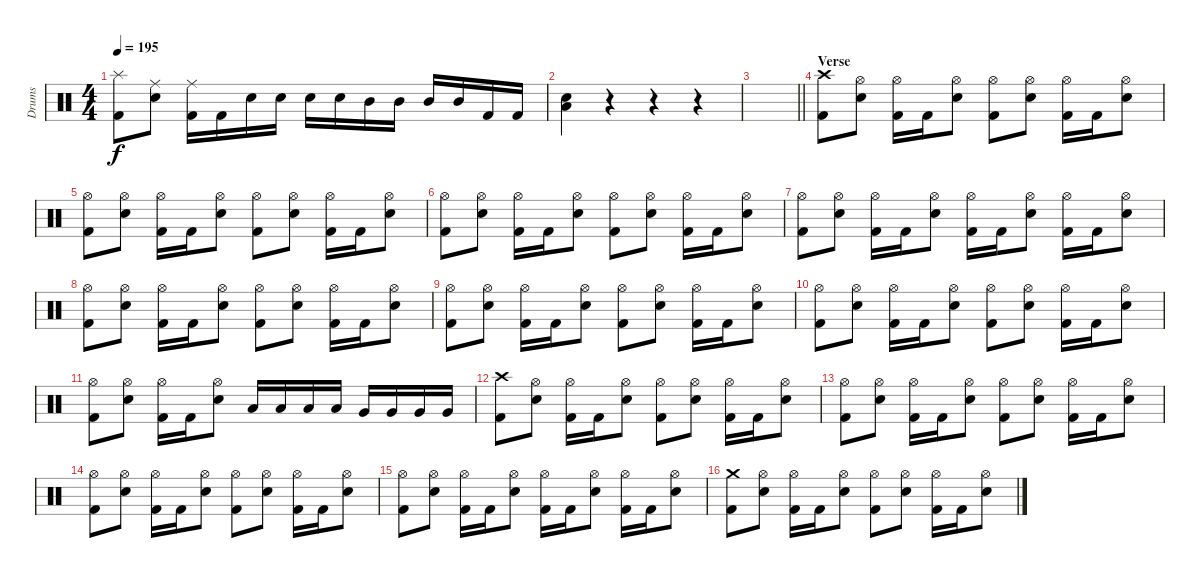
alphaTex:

\track ("Drums" "Drums") {instrument percussion}
\staff {score}
\articulation defaults
\ts (4 4)
\tempo 195
\clef neutral
\ks c
("Splash (hit)" "Kick (hit) 2").8{dy f} ("Ride (middle)" "Electric Snare (hit)").8 ("Ride (middle)" "Kick (hit) 2").16 "Kick (hit) 2".16 "Electric Snare (hit)".16 "Electric Snare (hit)".16 "Electric Snare (hit)".16 "Electric Snare (hit)".16 "Mid Tom (hit)".16 "Mid Tom (hit)".16 "Mid Tom (hit)".16 "Mid Tom (hit)".16 "Kick (hit) 2".16 "Kick (hit) 2".16 |
("Low Floor Tom (hit)" "Electric Snare (hit)").4 r.4 r.4 r.4 |
\barLineRight lightlight
|
\section ("" "Verse")
("Crash high (hit)" "Kick (hit) 2").8 ("Hi-Hat (open)" "Electric Snare (hit)").8 ("Hi-Hat (open)" "Kick (hit) 2").16 "Kick (hit) 2".16 ("Hi-Hat (open)" "Electric Snare (hit)").8 ("Hi-Hat (open)" "Kick (hit) 2").8 ("Hi-Hat (open)" "Electric Snare (hit)").8 ("Hi-Hat (open)" "Kick (hit) 2").16 "Kick (hit) 2".16 ("Hi-Hat (open)" "Electric Snare (hit)").8 |
("Hi-Hat (open)" "Kick (hit) 2").8 ("Hi-Hat (open)" "Electric Snare (hit)").8 ("Hi-Hat (open)" "Kick (hit) 2").16 "Kick (hit) 2".16 ("Hi-Hat (open)" "Electric Snare (hit)").8 ("Hi-Hat (open)" "Kick (hit) 2").8 ("Hi-Hat (open)" "Electric Snare (hit)").8 ("Hi-Hat (open)" "Kick (hit) 2").16 "Kick (hit) 2".16 ("Hi-Hat (open)" "Electric Snare (hit)").8 |
("Hi-Hat (open)" "Kick (hit) 2").8 ("Hi-Hat (open)" "Electric Snare (hit)").8 ("Hi-Hat (open)" "Kick (hit) 2").16 "Kick (hit) 2".16 ("Hi-Hat (open)" "Electric Snare (hit)").8 ("Hi-Hat (open)" "Kick (hit) 2").8 ("Hi-Hat (open)" "Electric Snare (hit)").8 ("Hi-Hat (open)" "Kick (hit) 2").16 "Kick (hit) 2".16 ("Hi-Hat (open)" "Electric Snare (hit)").8 |
("Hi-Hat (open)" "Kick (hit) 2").8 ("Hi-Hat (open)" "Electric Snare (hit)").8 ("Hi-Hat (open)" "Kick (hit) 2").16 "Kick (hit) 2".16 ("Hi-Hat (open)" "Electric Snare (hit)").8 ("Hi-Hat (open)" "Kick (hit) 2").16 "Kick (hit) 2".16 ("Hi-Hat (open)" "Electric Snare (hit)").8 ("Hi-Hat (open)" "Kick (hit) 2").16 "Kick (hit) 2".16 ("Hi-Hat (open)" "Electric Snare (hit)").8 |
("Hi-Hat (open)" "Kick (hit) 2").8 ("Hi-Hat (open)" "Electric Snare (hit)").8 ("Hi-Hat (open)" "Kick (hit) 2").16 "Kick (hit) 2".16 ("Hi-Hat (open)" "Electric Snare (hit)").8 ("Hi-Hat (open)" "Kick (hit) 2").8 ("Hi-Hat (open)" "Electric Snare (hit)").8 ("Hi-Hat (open)" "Kick (hit) 2").16 "Kick (hit) 2".16 ("Hi-Hat (open)" "Electric Snare (hit)").8 |
("Hi-Hat (open)" "Kick (hit) 2").8 ("Hi-Hat (open)" "Electric Snare (hit)").8 ("Hi-Hat (open)" "Kick (hit) 2").16 "Kick (hit) 2".16 ("Hi-Hat (open)" "Electric Snare (hit)").8 ("Hi-Hat (open)" "Kick (hit) 2").8 ("Hi-Hat (open)" "Electric Snare (hit)").8 ("Hi-Hat (open)" "Kick (hit) 2").16 "Kick (hit) 2".16 ("Hi-Hat (open)" "Electric Snare (hit)").8 |
("Hi-Hat (open)" "Kick (hit) 2").8 ("Hi-Hat (open)" "Electric Snare (hit)").8 ("Hi-Hat (open)" "Kick (hit) 2").16 "Kick (hit) 2".16 ("Hi-Hat (open)" "Electric Snare (hit)").8 ("Hi-Hat (open)" "Kick (hit) 2").8 ("Hi-Hat (open)" "Electric Snare (hit)").8 ("Hi-Hat (open)" "Kick (hit) 2").16 "Kick (hit) 2".16 ("Hi-Hat (open)" "Electric Snare (hit)").8 |
("Hi-Hat (open)" "Kick (hit) 2").8 ("Hi-Hat (open)" "Electric Snare (hit)").8 ("Hi-Hat (open)" "Kick (hit) 2").16 "Kick (hit) 2".16 ("Hi-Hat (open)" "Electric Snare (hit)").8 "Low Tom (hit)".16 "Low Tom (hit)".16 "Low Tom (hit)".16 "Low Tom (hit)".16 "Very Low Tom (hit)".16 "Very Low Tom (hit)".16 "Very Low Tom (hit)".16 "Very Low Tom (hit)".16 |
("Crash high (hit)" "Kick (hit) 2").8 ("Hi-Hat (open)" "Electric Snare (hit)").8 ("Hi-Hat (open)" "Kick (hit) 2").16 "Kick (hit) 2".16 ("Hi-Hat (open)" "Electric Snare (hit)").8 ("Hi-Hat (open)" "Kick (hit) 2").8 ("Hi-Hat (open)" "Electric Snare (hit)").8 ("Hi-Hat (open)" "Kick (hit) 2").16 "Kick (hit) 2".16 ("Hi-Hat (open)" "Electric Snare (hit)").8 |
("Hi-Hat (open)" "Kick (hit) 2").8 ("Hi-Hat (open)" "Electric Snare (hit)").8 ("Hi-Hat (open)" "Kick (hit) 2").16 "Kick (hit) 2".16 ("Hi-Hat (open)" "Electric Snare (hit)").8 ("Hi-Hat (open)" "Kick (hit) 2").8 ("Hi-Hat (open)" "Electric Snare (hit)").8 ("Hi-Hat (open)" "Kick (hit) 2").16 "Kick (hit) 2".16 ("Hi-Hat (open)" "Electric Snare (hit)").8 |
("Hi-Hat (open)" "Kick (hit) 2").8 ("Hi-Hat (open)" "Electric Snare (hit)").8 ("Hi-Hat (open)" "Kick (hit) 2").16 "Kick (hit) 2".16 ("Hi-Hat (open)" "Electric Snare (hit)").8 ("Hi-Hat (open)" "Kick (hit) 2").8 ("Hi-Hat (open)" "Electric Snare (hit)").8 ("Hi-Hat (open)" "Kick (hit) 2").16 "Kick (hit) 2".16 ("Hi-Hat (open)" "Electric Snare (hit)").8 |
("Hi-Hat (open)" "Kick (hit) 2").8 ("Hi-Hat (open)" "Electric Snare (hit)").8 ("Hi-Hat (open)" "Kick (hit) 2").16 "Kick (hit) 2".16 ("Hi-Hat (open)" "Electric Snare (hit)").8 ("Hi-Hat (open)" "Kick (hit) 2").16 "Kick (hit) 2".16 ("Hi-Hat (open)" "Electric Snare (hit)").8 ("Hi-Hat (open)" "Kick (hit) 2").16 "Kick (hit) 2".16 ("Hi-Hat (open)" "Electric Snare (hit)").8 |
("Crash medium (hit)" "Kick (hit) 2").8 ("Hi-Hat (open)" "Electric Snare (hit)").8 ("Hi-Hat (open)" "Kick (hit) 2").16 "Kick (hit) 2".16 ("Hi-Hat (open)" "Electric Snare (hit)").8 ("Hi-Hat (open)" "Kick (hit) 2").8 ("Hi-Hat (open)" "Electric Snare (hit)").8 ("Hi-Hat (open)" "Kick (hit) 2").16 "Kick (hit) 2".16 ("Hi-Hat (open)" "Electric Snare (hit)").8
